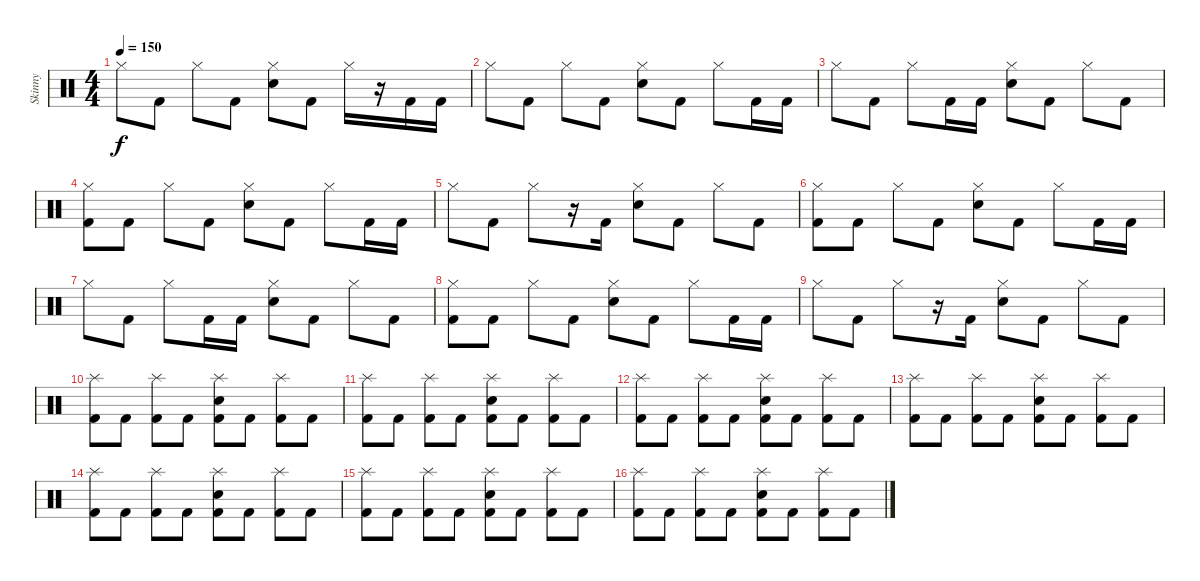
\track ("Skinny" "Skinny") {instrument percussion}
\staff {score}
\articulation defaults
\ts (4 4)
\tempo 150
\clef neutral
\ks c "Hi-Hat (closed)".8{dy f} "Kick (hit) 2".8 "Hi-Hat (closed)".8 "Kick (hit) 2".8
("Hi-Hat (closed)" "Electric Snare (hit)").8 "Kick (hit) 2".8 "Hi-Hat (closed)".16 r.16 "Kick (hit) 2".16 "Kick (hit) 2".16 |
"Hi-Hat (closed)".8 "Kick (hit) 2".8 "Hi-Hat (closed)".8 "Kick (hit) 2".8 ("Hi-Hat (closed)" "Electric Snare (hit)").8 "Kick (hit) 2".8 "Hi-Hat (closed)".8 "Kick (hit) 2".16 "Kick (hit) 2".16 |
"Hi-Hat (closed)".8 "Kick (hit) 2".8 "Hi-Hat (closed)".8 "Kick (hit) 2".16 "Kick (hit) 2".16 ("Hi-Hat (closed)" "Electric Snare (hit)").8 "Kick (hit) 2".8 "Hi-Hat (closed)".8 "Kick (hit) 2".8 |
("Hi-Hat (closed)" "Kick (hit) 2").8 "Kick (hit) 2".8 "Hi-Hat (closed)".8 "Kick (hit) 2".8 ("Hi-Hat (closed)" "Electric Snare (hit)").8 "Kick (hit) 2".8 "Hi-Hat (closed)".8 "Kick (hit) 2".16 "Kick (hit) 2".16 |
"Hi-Hat (closed)".8 "Kick (hit) 2".8 "Hi-Hat (closed)".8 r.16 "Kick (hit) 2".16 ("Hi-Hat (closed)" "Electric Snare (hit)").8 "Kick (hit) 2".8 "Hi-Hat (closed)".8 "Kick (hit) 2".8 |
("Hi-Hat (closed)" "Kick (hit) 2").8 "Kick (hit) 2".8 "Hi-Hat (closed)".8 "Kick (hit) 2".8 ("Hi-Hat (closed)" "Electric Snare (hit)").8 "Kick (hit) 2".8 "Hi-Hat (closed)".8 "Kick (hit) 2".16 "Kick (hit) 2".16 |
"Hi-Hat (closed)".8 "Kick (hit) 2".8 "Hi-Hat (closed)".8 "Kick (hit) 2".16 "Kick (hit) 2".16 ("Hi-Hat (closed)" "Electric Snare (hit)").8 "Kick (hit) 2".8 "Hi-Hat (closed)".8 "Kick (hit) 2".8 |
("Hi-Hat (closed)" "Kick (hit) 2").8 "Kick (hit) 2".8 "Hi-Hat (closed)".8 "Kick (hit) 2".8 ("Hi-Hat (closed)" "Electric Snare (hit)").8 "Kick (hit) 2".8 "Hi-Hat (closed)".8 "Kick (hit) 2".16 "Kick (hit) 2".16 |
"Hi-Hat (closed)".8 "Kick (hit) 2".8 "Hi-Hat (closed)".8 r.16 "Kick (hit) 2".16 ("Hi-Hat (closed)" "Electric Snare (hit)").8 "Kick (hit) 2".8 "Hi-Hat (closed)".8 "Kick (hit) 2".8 |
("Splash (hit)" "Kick (hit) 2").8 "Kick (hit) 2".8 ("Splash (hit)" "Kick (hit) 2").8 "Kick (hit) 2".8 ("Splash (hit)" "Electric Snare (hit)" "Kick (hit) 2").8 "Kick (hit) 2".8 ("Splash (hit)" "Kick (hit) 2").8 "Kick (hit) 2".8 |
("Splash (hit)" "Kick (hit) 2").8 "Kick (hit) 2".8 ("Splash (hit)" "Kick (hit) 2").8 "Kick (hit) 2".8 ("Splash (hit)" "Electric Snare (hit)" "Kick (hit) 2").8 "Kick (hit) 2".8 ("Splash (hit)" "Kick (hit) 2").8 "Kick (hit) 2".8 |
("Splash (hit)" "Kick (hit) 2").8 "Kick (hit) 2".8 ("Splash (hit)" "Kick (hit) 2").8 "Kick (hit) 2".8 ("Splash (hit)" "Electric Snare (hit)" "Kick (hit) 2").8 "Kick (hit) 2".8 ("Splash (hit)" "Kick (hit) 2").8 "Kick (hit) 2".8 |
("Splash (hit)" "Kick (hit) 2").8 "Kick (hit) 2".8 ("Splash (hit)" "Kick (hit) 2").8 "Kick (hit) 2".8 ("Splash (hit)" "Electric Snare (hit)" "Kick (hit) 2").8 "Kick (hit) 2".8 ("Splash (hit)" "Kick (hit) 2").8 "Kick (hit) 2".8 |
("Splash (hit)" "Kick (hit) 2").8 "Kick (hit) 2".8 ("Splash (hit)" "Kick (hit) 2").8 "Kick (hit) 2".8 ("Splash (hit)" "Electric Snare (hit)" "Kick (hit) 2").8 "Kick (hit) 2".8 ("Splash (hit)" "Kick (hit) 2").8 "Kick (hit) 2".8 |
("Splash (hit)" "Kick (hit) 2").8 "Kick (hit) 2".8 ("Splash (hit)" "Kick (hit) 2").8 "Kick (hit) 2".8 ("Splash (hit)" "Electric Snare (hit)" "Kick (hit) 2").8 "Kick (hit) 2".8 ("Splash (hit)" "Kick (hit) 2").8 "Kick (hit) 2".8 |
("Splash (hit)" "Kick (hit) 2").8 "Kick (hit) 2".8 ("Splash (hit)" "Kick (hit) 2").8 "Kick (hit) 2".8 ("Splash (hit)" "Electric Snare (hit)" "Kick (hit) 2").8 "Kick (hit) 2".8 ("Splash (hit)" "Kick (hit) 2").8 "Kick (hit) 2".8
